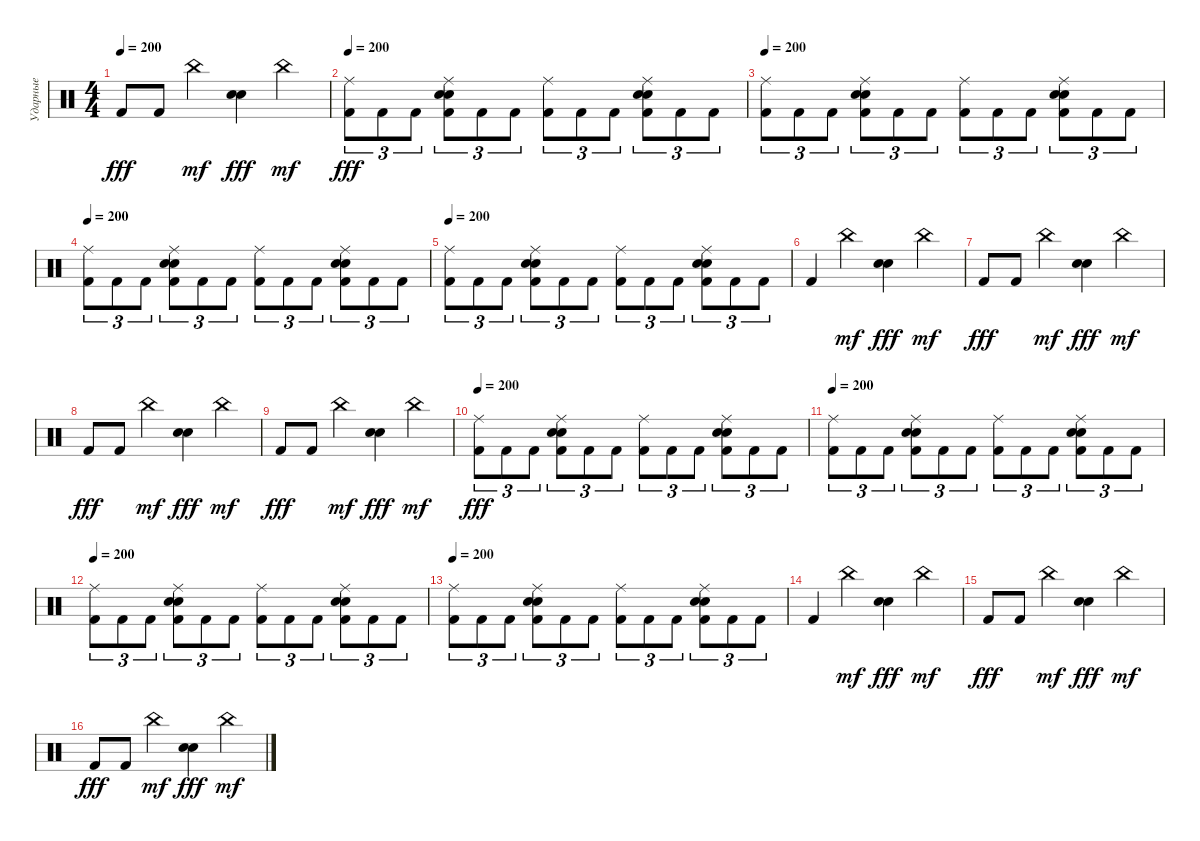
\track ("Ударные" "Ударные") {instrument percussion}
\staff {score}
\articulation defaults
\ts (4 4)
\tempo 200
\clef neutral
\ks c "Kick (hit) 2".8{dy fff} "Kick (hit) 2".8 "China (hit)".4{dy mf}
("Snare (hit) 2" "Electric Snare (hit)").4{dy fff} "China (hit)".4{dy mf} |
\tempo 200
("Ride (middle)" "Kick (hit) 2").8{tu (3 2) dy fff} "Kick (hit) 2".8{tu (3 2)} "Kick (hit) 2".8{tu (3 2)} ("Ride (middle)" "Snare (hit) 2" "Electric Snare (hit)" "Kick (hit) 2").8{tu (3 2)} "Kick (hit) 2".8{tu (3 2)} "Kick (hit) 2".8{tu (3 2)} ("Ride (middle)" "Kick (hit) 2").8{tu (3 2)} "Kick (hit) 2".8{tu (3 2)} "Kick (hit) 2".8{tu (3 2)} ("Ride (middle)" "Snare (hit) 2" "Electric Snare (hit)" "Kick (hit) 2").8{tu (3 2)} "Kick (hit) 2".8{tu (3 2)} "Kick (hit) 2".8{tu (3 2)} |
\tempo 200
("Ride (middle)" "Kick (hit) 2").8{tu (3 2)} "Kick (hit) 2".8{tu (3 2)} "Kick (hit) 2".8{tu (3 2)} ("Ride (middle)" "Snare (hit) 2" "Electric Snare (hit)" "Kick (hit) 2").8{tu (3 2)} "Kick (hit) 2".8{tu (3 2)} "Kick (hit) 2".8{tu (3 2)} ("Ride (middle)" "Kick (hit) 2").8{tu (3 2)} "Kick (hit) 2".8{tu (3 2)} "Kick (hit) 2".8{tu (3 2)} ("Ride (middle)" "Snare (hit) 2" "Electric Snare (hit)" "Kick (hit) 2").8{tu (3 2)} "Kick (hit) 2".8{tu (3 2)} "Kick (hit) 2".8{tu (3 2)} |
\tempo 200
("Ride (middle)" "Kick (hit) 2").8{tu (3 2)} "Kick (hit) 2".8{tu (3 2)} "Kick (hit) 2".8{tu (3 2)} ("Ride (middle)" "Snare (hit) 2" "Electric Snare (hit)" "Kick (hit) 2").8{tu (3 2)} "Kick (hit) 2".8{tu (3 2)} "Kick (hit) 2".8{tu (3 2)} ("Ride (middle)" "Kick (hit) 2").8{tu (3 2)} "Kick (hit) 2".8{tu (3 2)} "Kick (hit) 2".8{tu (3 2)} ("Ride (middle)" "Snare (hit) 2" "Electric Snare (hit)" "Kick (hit) 2").8{tu (3 2)} "Kick (hit) 2".8{tu (3 2)} "Kick (hit) 2".8{tu (3 2)} |
\tempo 200
("Ride (middle)" "Kick (hit) 2").8{tu (3 2)} "Kick (hit) 2".8{tu (3 2)} "Kick (hit) 2".8{tu (3 2)} ("Ride (middle)" "Snare (hit) 2" "Electric Snare (hit)" "Kick (hit) 2").8{tu (3 2)} "Kick (hit) 2".8{tu (3 2)} "Kick (hit) 2".8{tu (3 2)} ("Ride (middle)" "Kick (hit) 2").8{tu (3 2)} "Kick (hit) 2".8{tu (3 2)} "Kick (hit) 2".8{tu (3 2)} ("Ride (middle)" "Snare (hit) 2" "Electric Snare (hit)" "Kick (hit) 2").8{tu (3 2)} "Kick (hit) 2".8{tu (3 2)} "Kick (hit) 2".8{tu (3 2)} |
"Kick (hit) 2".4 "China (hit)".4{dy mf} ("Snare (hit) 2" "Electric Snare (hit)").4{dy fff} "China (hit)".4{dy mf} |
"Kick (hit) 2".8{dy fff} "Kick (hit) 2".8 "China (hit)".4{dy mf} ("Snare (hit) 2" "Electric Snare (hit)").4{dy fff} "China (hit)".4{dy mf} |
"Kick (hit) 2".8{dy fff} "Kick (hit) 2".8 "China (hit)".4{dy mf} ("Snare (hit) 2" "Electric Snare (hit)").4{dy fff} "China (hit)".4{dy mf} |
"Kick (hit) 2".8{dy fff} "Kick (hit) 2".8 "China (hit)".4{dy mf} ("Snare (hit) 2" "Electric Snare (hit)").4{dy fff} "China (hit)".4{dy mf} |
\tempo 200
("Ride (middle)" "Kick (hit) 2").8{tu (3 2) dy fff} "Kick (hit) 2".8{tu (3 2)} "Kick (hit) 2".8{tu (3 2)} ("Ride (middle)" "Snare (hit) 2" "Electric Snare (hit)" "Kick (hit) 2").8{tu (3 2)} "Kick (hit) 2".8{tu (3 2)} "Kick (hit) 2".8{tu (3 2)} ("Ride (middle)" "Kick (hit) 2").8{tu (3 2)} "Kick (hit) 2".8{tu (3 2)} "Kick (hit) 2".8{tu (3 2)} ("Ride (middle)" "Snare (hit) 2" "Electric Snare (hit)" "Kick (hit) 2").8{tu (3 2)} "Kick (hit) 2".8{tu (3 2)} "Kick (hit) 2".8{tu (3 2)} |
\tempo 200
("Ride (middle)" "Kick (hit) 2").8{tu (3 2)} "Kick (hit) 2".8{tu (3 2)} "Kick (hit) 2".8{tu (3 2)} ("Ride (middle)" "Snare (hit) 2" "Electric Snare (hit)" "Kick (hit) 2").8{tu (3 2)} "Kick (hit) 2".8{tu (3 2)} "Kick (hit) 2".8{tu (3 2)} ("Ride (middle)" "Kick (hit) 2").8{tu (3 2)} "Kick (hit) 2".8{tu (3 2)} "Kick (hit) 2".8{tu (3 2)} ("Ride (middle)" "Snare (hit) 2" "Electric Snare (hit)" "Kick (hit) 2").8{tu (3 2)} "Kick (hit) 2".8{tu (3 2)} "Kick (hit) 2".8{tu (3 2)} |
\tempo 200
("Ride (middle)" "Kick (hit) 2").8{tu (3 2)} "Kick (hit) 2".8{tu (3 2)} "Kick (hit) 2".8{tu (3 2)} ("Ride (middle)" "Snare (hit) 2" "Electric Snare (hit)" "Kick (hit) 2").8{tu (3 2)} "Kick (hit) 2".8{tu (3 2)} "Kick (hit) 2".8{tu (3 2)} ("Ride (middle)" "Kick (hit) 2").8{tu (3 2)} "Kick (hit) 2".8{tu (3 2)} "Kick (hit) 2".8{tu (3 2)} ("Ride (middle)" "Snare (hit) 2" "Electric Snare (hit)" "Kick (hit) 2").8{tu (3 2)} "Kick (hit) 2".8{tu (3 2)} "Kick (hit) 2".8{tu (3 2)} |
\tempo 200
("Ride (middle)" "Kick (hit) 2").8{tu (3 2)} "Kick (hit) 2".8{tu (3 2)} "Kick (hit) 2".8{tu (3 2)} ("Ride (middle)" "Snare (hit) 2" "Electric Snare (hit)" "Kick (hit) 2").8{tu (3 2)} "Kick (hit) 2".8{tu (3 2)} "Kick (hit) 2".8{tu (3 2)} ("Ride (middle)" "Kick (hit) 2").8{tu (3 2)} "Kick (hit) 2".8{tu (3 2)} "Kick (hit) 2".8{tu (3 2)} ("Ride (middle)" "Snare (hit) 2" "Electric Snare (hit)" "Kick (hit) 2").8{tu (3 2)} "Kick (hit) 2".8{tu (3 2)} "Kick (hit) 2".8{tu (3 2)} |
"Kick (hit) 2".4 "China (hit)".4{dy mf} ("Snare (hit) 2" "Electric Snare (hit)").4{dy fff} "China (hit)".4{dy mf} |
"Kick (hit) 2".8{dy fff} "Kick (hit) 2".8 "China (hit)".4{dy mf} ("Snare (hit) 2" "Electric Snare (hit)").4{dy fff} "China (hit)".4{dy mf} |
"Kick (hit) 2".8{dy fff} "Kick (hit) 2".8 "China (hit)".4{dy mf} ("Snare (hit) 2" "Electric Snare (hit)").4{dy fff} "China (hit)".4{dy mf}
